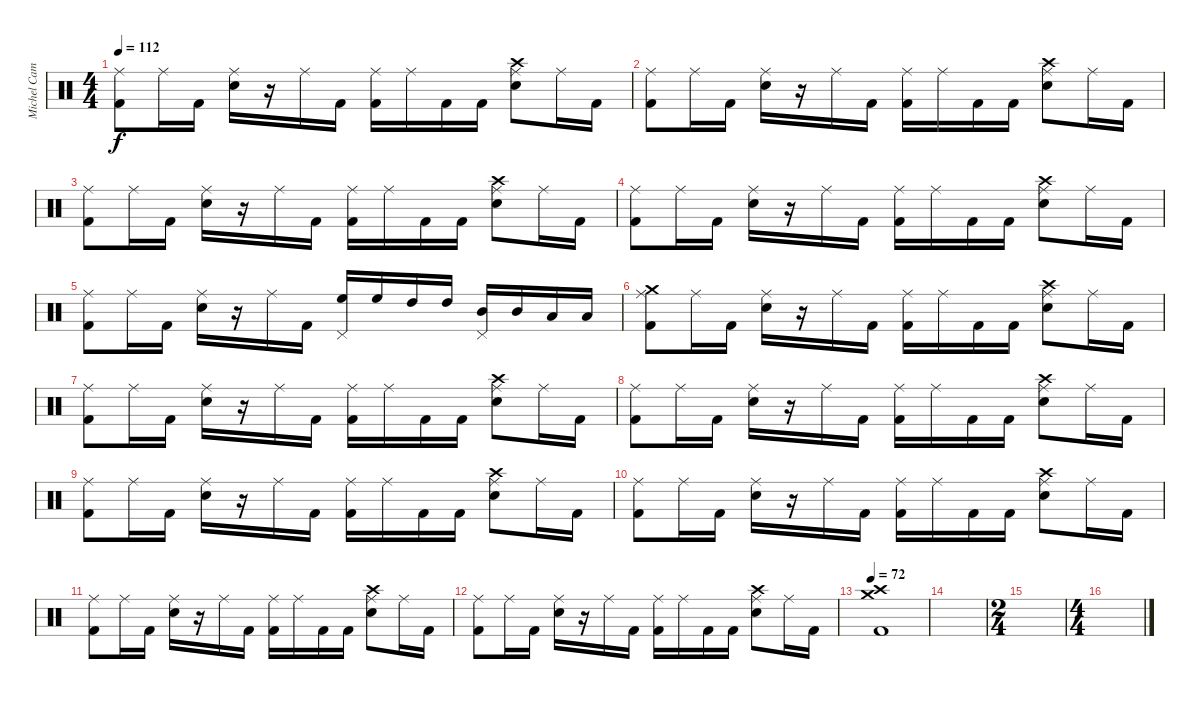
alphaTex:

\track ("Michel Camiade" "Michel Cam") {instrument percussion}
\staff {score}
\articulation defaults
\ts (4 4)
\tempo 112
\clef neutral
\ks c
("Ride (middle)" "Kick (hit) 2").8{dy f} "Ride (middle)".16 "Kick (hit) 2".16 ("Ride (middle)" "Snare (hit) 2").16 r.16 "Ride (middle)".16 "Kick (hit) 2".16 ("Ride (middle)" "Kick (hit) 2").16 "Ride (middle)".16 "Kick (hit) 2".16 "Kick (hit) 2".16 ("Crash high (hit)" "Ride (middle)" "Snare (hit) 2").8 "Ride (middle)".16 "Kick (hit) 2".16 |
("Ride (middle)" "Kick (hit) 2").8 "Ride (middle)".16 "Kick (hit) 2".16 ("Ride (middle)" "Snare (hit) 2").16 r.16 "Ride (middle)".16 "Kick (hit) 2".16 ("Ride (middle)" "Kick (hit) 2").16 "Ride (middle)".16 "Kick (hit) 2".16 "Kick (hit) 2".16 ("Crash high (hit)" "Ride (middle)" "Snare (hit) 2").8 "Ride (middle)".16 "Kick (hit) 2".16 |
("Ride (middle)" "Kick (hit) 2").8 "Ride (middle)".16 "Kick (hit) 2".16 ("Ride (middle)" "Snare (hit) 2").16 r.16 "Ride (middle)".16 "Kick (hit) 2".16 ("Ride (middle)" "Kick (hit) 2").16 "Ride (middle)".16 "Kick (hit) 2".16 "Kick (hit) 2".16 ("Crash high (hit)" "Ride (middle)" "Snare (hit) 2").8 "Ride (middle)".16 "Kick (hit) 2".16 |
("Ride (middle)" "Kick (hit) 2").8 "Ride (middle)".16 "Kick (hit) 2".16 ("Ride (middle)" "Snare (hit) 2").16 r.16 "Ride (middle)".16 "Kick (hit) 2".16 ("Ride (middle)" "Kick (hit) 2").16 "Ride (middle)".16 "Kick (hit) 2".16 "Kick (hit) 2".16 ("Crash high (hit)" "Ride (middle)" "Snare (hit) 2").8 "Ride (middle)".16 "Kick (hit) 2".16 |
("Ride (middle)" "Kick (hit) 2").8 "Ride (middle)".16 "Kick (hit) 2".16 ("Ride (middle)" "Snare (hit) 2").16 r.16 "Ride (middle)".16 "Kick (hit) 2".16 ("High Floor Tom (hit)" "Pedal Hi-Hat (hit)").16 "High Floor Tom (hit)".16 "High Tom (hit)".16 "High Tom (hit)".16 ("Mid Tom (hit)" "Pedal Hi-Hat (hit)").16 "Mid Tom (hit)".16 "Low Tom (hit)".16 "Low Tom (hit)".16 |
("Crash medium (hit)" "Ride (middle)" "Kick (hit) 2").8 "Ride (middle)".16 "Kick (hit) 2".16 ("Ride (middle)" "Snare (hit) 2").16 r.16 "Ride (middle)".16 "Kick (hit) 2".16 ("Ride (middle)" "Kick (hit) 2").16 "Ride (middle)".16 "Kick (hit) 2".16 "Kick (hit) 2".16 ("Crash high (hit)" "Ride (middle)" "Snare (hit) 2").8 "Ride (middle)".16 "Kick (hit) 2".16 |
("Ride (middle)" "Kick (hit) 2").8 "Ride (middle)".16 "Kick (hit) 2".16 ("Ride (middle)" "Snare (hit) 2").16 r.16 "Ride (middle)".16 "Kick (hit) 2".16 ("Ride (middle)" "Kick (hit) 2").16 "Ride (middle)".16 "Kick (hit) 2".16 "Kick (hit) 2".16 ("Crash high (hit)" "Ride (middle)" "Snare (hit) 2").8 "Ride (middle)".16 "Kick (hit) 2".16 |
("Ride (middle)" "Kick (hit) 2").8 "Ride (middle)".16 "Kick (hit) 2".16 ("Ride (middle)" "Snare (hit) 2").16 r.16 "Ride (middle)".16 "Kick (hit) 2".16 ("Ride (middle)" "Kick (hit) 2").16 "Ride (middle)".16 "Kick (hit) 2".16 "Kick (hit) 2".16 ("Crash high (hit)" "Ride (middle)" "Snare (hit) 2").8 "Ride (middle)".16 "Kick (hit) 2".16 |
("Ride (middle)" "Kick (hit) 2").8 "Ride (middle)".16 "Kick (hit) 2".16 ("Ride (middle)" "Snare (hit) 2").16 r.16 "Ride (middle)".16 "Kick (hit) 2".16 ("Ride (middle)" "Kick (hit) 2").16 "Ride (middle)".16 "Kick (hit) 2".16 "Kick (hit) 2".16 ("Crash high (hit)" "Ride (middle)" "Snare (hit) 2").8 "Ride (middle)".16 "Kick (hit) 2".16 |
("Ride (middle)" "Kick (hit) 2").8 "Ride (middle)".16 "Kick (hit) 2".16 ("Ride (middle)" "Snare (hit) 2").16 r.16 "Ride (middle)".16 "Kick (hit) 2".16 ("Ride (middle)" "Kick (hit) 2").16 "Ride (middle)".16 "Kick (hit) 2".16 "Kick (hit) 2".16 ("Crash high (hit)" "Ride (middle)" "Snare (hit) 2").8 "Ride (middle)".16 "Kick (hit) 2".16 |
("Ride (middle)" "Kick (hit) 2").8 "Ride (middle)".16 "Kick (hit) 2".16 ("Ride (middle)" "Snare (hit) 2").16 r.16 "Ride (middle)".16 "Kick (hit) 2".16 ("Ride (middle)" "Kick (hit) 2").16 "Ride (middle)".16 "Kick (hit) 2".16 "Kick (hit) 2".16 ("Crash high (hit)" "Ride (middle)" "Snare (hit) 2").8 "Ride (middle)".16 "Kick (hit) 2".16 |
("Ride (middle)" "Kick (hit) 2").8 "Ride (middle)".16 "Kick (hit) 2".16 ("Ride (middle)" "Snare (hit) 2").16 r.16 "Ride (middle)".16 "Kick (hit) 2".16 ("Ride (middle)" "Kick (hit) 2").16 "Ride (middle)".16 "Kick (hit) 2".16 "Kick (hit) 2".16 ("Crash high (hit)" "Ride (middle)" "Snare (hit) 2").8 "Ride (middle)".16 "Kick (hit) 2".16 |
\tempo 72
("Crash medium (hit)" "Crash high (hit)" "Kick (hit) 2").1 |
|
\ts (2 4)
|
\ts (4 4)
